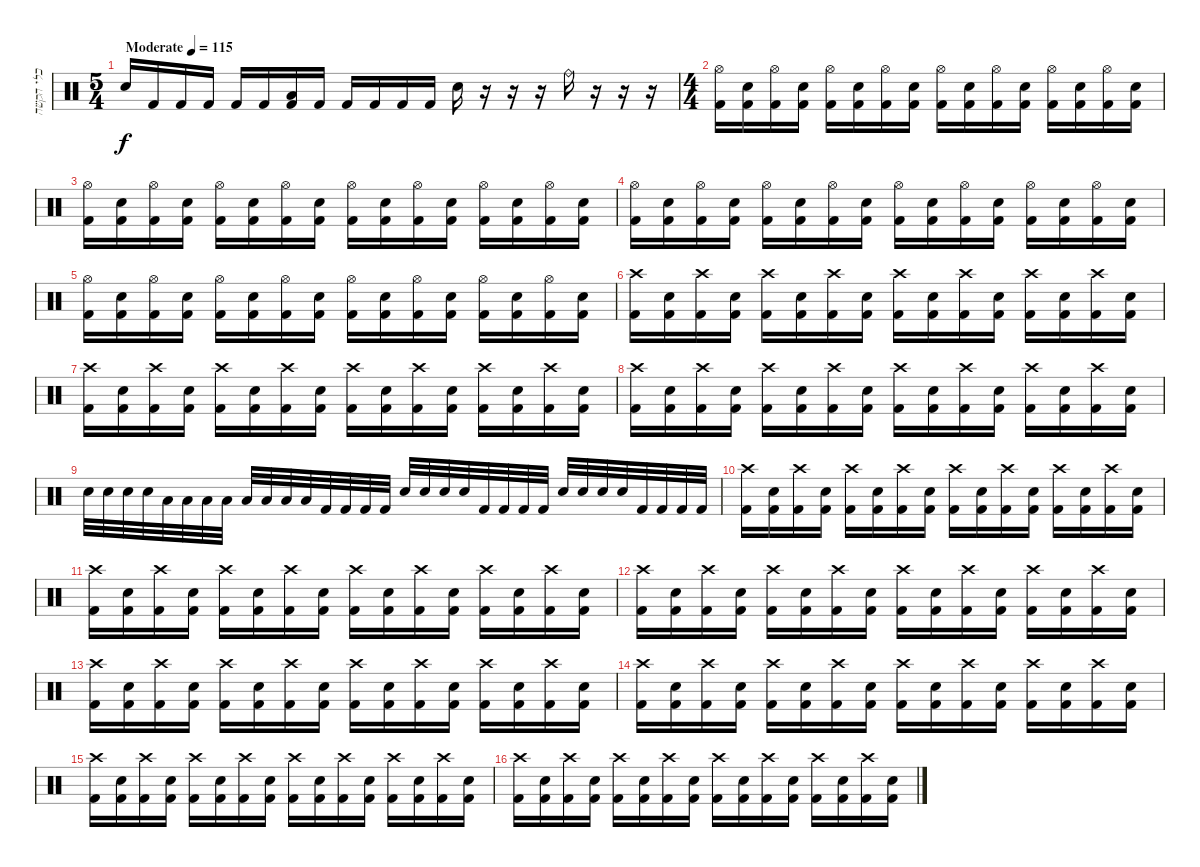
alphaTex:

\track ("כלי הקשה" "כלי הקשה") {instrument percussion}
\staff {score}
\articulation defaults
\ts (5 4)
\tempo (115 "Moderate")
\clef neutral
\ks c "Snare (hit) 2".16{dy f} "Kick (hit) 2".16 "Kick (hit) 2".16 "Kick (hit) 2".16 "Kick (hit) 2".16 "Kick (hit) 2".16
("Low Tom (hit)" "Kick (hit) 2").16 "Kick (hit) 2".16 "Kick (hit) 2".16 "Kick (hit) 2".16 "Kick (hit) 2".16 "Kick (hit) 2".16 "Snare (hit) 2".16 r.16 r.16 r.16 "Ride (bell)".16 r.16 r.16 r.16 |
\ts (4 4)
("Hi-Hat (open)" "Kick (hit) 2").16 ("Snare (hit) 2" "Kick (hit) 2").16 ("Hi-Hat (open)" "Kick (hit) 2").16 ("Snare (hit) 2" "Kick (hit) 2").16 ("Hi-Hat (open)" "Kick (hit) 2").16 ("Snare (hit) 2" "Kick (hit) 2").16 ("Hi-Hat (open)" "Kick (hit) 2").16 ("Snare (hit) 2" "Kick (hit) 2").16 ("Hi-Hat (open)" "Kick (hit) 2").16 ("Snare (hit) 2" "Kick (hit) 2").16 ("Hi-Hat (open)" "Kick (hit) 2").16 ("Snare (hit) 2" "Kick (hit) 2").16 ("Hi-Hat (open)" "Kick (hit) 2").16 ("Snare (hit) 2" "Kick (hit) 2").16 ("Hi-Hat (open)" "Kick (hit) 2").16 ("Snare (hit) 2" "Kick (hit) 2").16 |
("Hi-Hat (open)" "Kick (hit) 2").16 ("Snare (hit) 2" "Kick (hit) 2").16 ("Hi-Hat (open)" "Kick (hit) 2").16 ("Snare (hit) 2" "Kick (hit) 2").16 ("Hi-Hat (open)" "Kick (hit) 2").16 ("Snare (hit) 2" "Kick (hit) 2").16 ("Hi-Hat (open)" "Kick (hit) 2").16 ("Snare (hit) 2" "Kick (hit) 2").16 ("Hi-Hat (open)" "Kick (hit) 2").16 ("Snare (hit) 2" "Kick (hit) 2").16 ("Hi-Hat (open)" "Kick (hit) 2").16 ("Snare (hit) 2" "Kick (hit) 2").16 ("Hi-Hat (open)" "Kick (hit) 2").16 ("Snare (hit) 2" "Kick (hit) 2").16 ("Hi-Hat (open)" "Kick (hit) 2").16 ("Snare (hit) 2" "Kick (hit) 2").16 |
("Hi-Hat (open)" "Kick (hit) 2").16 ("Snare (hit) 2" "Kick (hit) 2").16 ("Hi-Hat (open)" "Kick (hit) 2").16 ("Snare (hit) 2" "Kick (hit) 2").16 ("Hi-Hat (open)" "Kick (hit) 2").16 ("Snare (hit) 2" "Kick (hit) 2").16 ("Hi-Hat (open)" "Kick (hit) 2").16 ("Snare (hit) 2" "Kick (hit) 2").16 ("Hi-Hat (open)" "Kick (hit) 2").16 ("Snare (hit) 2" "Kick (hit) 2").16 ("Hi-Hat (open)" "Kick (hit) 2").16 ("Snare (hit) 2" "Kick (hit) 2").16 ("Hi-Hat (open)" "Kick (hit) 2").16 ("Snare (hit) 2" "Kick (hit) 2").16 ("Hi-Hat (open)" "Kick (hit) 2").16 ("Snare (hit) 2" "Kick (hit) 2").16 |
("Hi-Hat (open)" "Kick (hit) 2").16 ("Snare (hit) 2" "Kick (hit) 2").16 ("Hi-Hat (open)" "Kick (hit) 2").16 ("Snare (hit) 2" "Kick (hit) 2").16 ("Hi-Hat (open)" "Kick (hit) 2").16 ("Snare (hit) 2" "Kick (hit) 2").16 ("Hi-Hat (open)" "Kick (hit) 2").16 ("Snare (hit) 2" "Kick (hit) 2").16 ("Hi-Hat (open)" "Kick (hit) 2").16 ("Snare (hit) 2" "Kick (hit) 2").16 ("Hi-Hat (open)" "Kick (hit) 2").16 ("Snare (hit) 2" "Kick (hit) 2").16 ("Hi-Hat (open)" "Kick (hit) 2").16 ("Snare (hit) 2" "Kick (hit) 2").16 ("Hi-Hat (open)" "Kick (hit) 2").16 ("Snare (hit) 2" "Kick (hit) 2").16 |
("Crash high (hit)" "Kick (hit) 2").16 ("Snare (hit) 2" "Kick (hit) 2").16 ("Crash high (hit)" "Kick (hit) 2").16 ("Snare (hit) 2" "Kick (hit) 2").16 ("Crash high (hit)" "Kick (hit) 2").16 ("Snare (hit) 2" "Kick (hit) 2").16 ("Crash high (hit)" "Kick (hit) 2").16 ("Snare (hit) 2" "Kick (hit) 2").16 ("Crash high (hit)" "Kick (hit) 2").16 ("Snare (hit) 2" "Kick (hit) 2").16 ("Crash high (hit)" "Kick (hit) 2").16 ("Snare (hit) 2" "Kick (hit) 2").16 ("Crash high (hit)" "Kick (hit) 2").16 ("Snare (hit) 2" "Kick (hit) 2").16 ("Crash high (hit)" "Kick (hit) 2").16 ("Snare (hit) 2" "Kick (hit) 2").16 |
("Crash high (hit)" "Kick (hit) 2").16 ("Snare (hit) 2" "Kick (hit) 2").16 ("Crash high (hit)" "Kick (hit) 2").16 ("Snare (hit) 2" "Kick (hit) 2").16 ("Crash high (hit)" "Kick (hit) 2").16 ("Snare (hit) 2" "Kick (hit) 2").16 ("Crash high (hit)" "Kick (hit) 2").16 ("Snare (hit) 2" "Kick (hit) 2").16 ("Crash high (hit)" "Kick (hit) 2").16 ("Snare (hit) 2" "Kick (hit) 2").16 ("Crash high (hit)" "Kick (hit) 2").16 ("Snare (hit) 2" "Kick (hit) 2").16 ("Crash high (hit)" "Kick (hit) 2").16 ("Snare (hit) 2" "Kick (hit) 2").16 ("Crash high (hit)" "Kick (hit) 2").16 ("Snare (hit) 2" "Kick (hit) 2").16 |
("Crash high (hit)" "Kick (hit) 2").16 ("Snare (hit) 2" "Kick (hit) 2").16 ("Crash high (hit)" "Kick (hit) 2").16 ("Snare (hit) 2" "Kick (hit) 2").16 ("Crash high (hit)" "Kick (hit) 2").16 ("Snare (hit) 2" "Kick (hit) 2").16 ("Crash high (hit)" "Kick (hit) 2").16 ("Snare (hit) 2" "Kick (hit) 2").16 ("Crash high (hit)" "Kick (hit) 2").16 ("Snare (hit) 2" "Kick (hit) 2").16 ("Crash high (hit)" "Kick (hit) 2").16 ("Snare (hit) 2" "Kick (hit) 2").16 ("Crash high (hit)" "Kick (hit) 2").16 ("Snare (hit) 2" "Kick (hit) 2").16 ("Crash high (hit)" "Kick (hit) 2").16 ("Snare (hit) 2" "Kick (hit) 2").16 |
"Snare (hit) 2".32 "Snare (hit) 2".32 "Snare (hit) 2".32 "Snare (hit) 2".32 "Low Tom (hit)".32 "Low Tom (hit)".32 "Low Tom (hit)".32 "Low Tom (hit)".32 "Low Floor Tom (hit)".32 "Low Floor Tom (hit)".32 "Low Floor Tom (hit)".32 "Low Floor Tom (hit)".32 "Kick (hit) 2".32 "Kick (hit) 2".32 "Kick (hit) 2".32 "Kick (hit) 2".32 "Snare (hit) 2".32 "Snare (hit) 2".32 "Snare (hit) 2".32 "Snare (hit) 2".32 "Kick (hit) 2".32 "Kick (hit) 2".32 "Kick (hit) 2".32 "Kick (hit) 2".32 "Snare (hit) 2".32 "Snare (hit) 2".32 "Snare (hit) 2".32 "Snare (hit) 2".32 "Kick (hit) 2".32 "Kick (hit) 2".32 "Kick (hit) 2".32 "Kick (hit) 2".32 |
("Crash high (hit)" "Kick (hit) 2").16 ("Snare (hit) 2" "Kick (hit) 2").16 ("Crash high (hit)" "Kick (hit) 2").16 ("Snare (hit) 2" "Kick (hit) 2").16 ("Crash high (hit)" "Kick (hit) 2").16 ("Snare (hit) 2" "Kick (hit) 2").16 ("Crash high (hit)" "Kick (hit) 2").16 ("Snare (hit) 2" "Kick (hit) 2").16 ("Crash high (hit)" "Kick (hit) 2").16 ("Snare (hit) 2" "Kick (hit) 2").16 ("Crash high (hit)" "Kick (hit) 2").16 ("Snare (hit) 2" "Kick (hit) 2").16 ("Crash high (hit)" "Kick (hit) 2").16 ("Snare (hit) 2" "Kick (hit) 2").16 ("Crash high (hit)" "Kick (hit) 2").16 ("Snare (hit) 2" "Kick (hit) 2").16 |
("Crash high (hit)" "Kick (hit) 2").16 ("Snare (hit) 2" "Kick (hit) 2").16 ("Crash high (hit)" "Kick (hit) 2").16 ("Snare (hit) 2" "Kick (hit) 2").16 ("Crash high (hit)" "Kick (hit) 2").16 ("Snare (hit) 2" "Kick (hit) 2").16 ("Crash high (hit)" "Kick (hit) 2").16 ("Snare (hit) 2" "Kick (hit) 2").16 ("Crash high (hit)" "Kick (hit) 2").16 ("Snare (hit) 2" "Kick (hit) 2").16 ("Crash high (hit)" "Kick (hit) 2").16 ("Snare (hit) 2" "Kick (hit) 2").16 ("Crash high (hit)" "Kick (hit) 2").16 ("Snare (hit) 2" "Kick (hit) 2").16 ("Crash high (hit)" "Kick (hit) 2").16 ("Snare (hit) 2" "Kick (hit) 2").16 |
("Crash high (hit)" "Kick (hit) 2").16 ("Snare (hit) 2" "Kick (hit) 2").16 ("Crash high (hit)" "Kick (hit) 2").16 ("Snare (hit) 2" "Kick (hit) 2").16 ("Crash high (hit)" "Kick (hit) 2").16 ("Snare (hit) 2" "Kick (hit) 2").16 ("Crash high (hit)" "Kick (hit) 2").16 ("Snare (hit) 2" "Kick (hit) 2").16 ("Crash high (hit)" "Kick (hit) 2").16 ("Snare (hit) 2" "Kick (hit) 2").16 ("Crash high (hit)" "Kick (hit) 2").16 ("Snare (hit) 2" "Kick (hit) 2").16 ("Crash high (hit)" "Kick (hit) 2").16 ("Snare (hit) 2" "Kick (hit) 2").16 ("Crash high (hit)" "Kick (hit) 2").16 ("Snare (hit) 2" "Kick (hit) 2").16 |
("Crash high (hit)" "Kick (hit) 2").16 ("Snare (hit) 2" "Kick (hit) 2").16 ("Crash high (hit)" "Kick (hit) 2").16 ("Snare (hit) 2" "Kick (hit) 2").16 ("Crash high (hit)" "Kick (hit) 2").16 ("Snare (hit) 2" "Kick (hit) 2").16 ("Crash high (hit)" "Kick (hit) 2").16 ("Snare (hit) 2" "Kick (hit) 2").16 ("Crash high (hit)" "Kick (hit) 2").16 ("Snare (hit) 2" "Kick (hit) 2").16 ("Crash high (hit)" "Kick (hit) 2").16 ("Snare (hit) 2" "Kick (hit) 2").16 ("Crash high (hit)" "Kick (hit) 2").16 ("Snare (hit) 2" "Kick (hit) 2").16 ("Crash high (hit)" "Kick (hit) 2").16 ("Snare (hit) 2" "Kick (hit) 2").16 |
("Crash high (hit)" "Kick (hit) 2").16 ("Snare (hit) 2" "Kick (hit) 2").16 ("Crash high (hit)" "Kick (hit) 2").16 ("Snare (hit) 2" "Kick (hit) 2").16 ("Crash high (hit)" "Kick (hit) 2").16 ("Snare (hit) 2" "Kick (hit) 2").16 ("Crash high (hit)" "Kick (hit) 2").16 ("Snare (hit) 2" "Kick (hit) 2").16 ("Crash high (hit)" "Kick (hit) 2").16 ("Snare (hit) 2" "Kick (hit) 2").16 ("Crash high (hit)" "Kick (hit) 2").16 ("Snare (hit) 2" "Kick (hit) 2").16 ("Crash high (hit)" "Kick (hit) 2").16 ("Snare (hit) 2" "Kick (hit) 2").16 ("Crash high (hit)" "Kick (hit) 2").16 ("Snare (hit) 2" "Kick (hit) 2").16 |
("Crash high (hit)" "Kick (hit) 2").16 ("Snare (hit) 2" "Kick (hit) 2").16 ("Crash high (hit)" "Kick (hit) 2").16 ("Snare (hit) 2" "Kick (hit) 2").16 ("Crash high (hit)" "Kick (hit) 2").16 ("Snare (hit) 2" "Kick (hit) 2").16 ("Crash high (hit)" "Kick (hit) 2").16 ("Snare (hit) 2" "Kick (hit) 2").16 ("Crash high (hit)" "Kick (hit) 2").16 ("Snare (hit) 2" "Kick (hit) 2").16 ("Crash high (hit)" "Kick (hit) 2").16 ("Snare (hit) 2" "Kick (hit) 2").16 ("Crash high (hit)" "Kick (hit) 2").16 ("Snare (hit) 2" "Kick (hit) 2").16 ("Crash high (hit)" "Kick (hit) 2").16 ("Snare (hit) 2" "Kick (hit) 2").16 |
("Crash high (hit)" "Kick (hit) 2").16 ("Snare (hit) 2" "Kick (hit) 2").16 ("Crash high (hit)" "Kick (hit) 2").16 ("Snare (hit) 2" "Kick (hit) 2").16 ("Crash high (hit)" "Kick (hit) 2").16 ("Snare (hit) 2" "Kick (hit) 2").16 ("Crash high (hit)" "Kick (hit) 2").16 ("Snare (hit) 2" "Kick (hit) 2").16 ("Crash high (hit)" "Kick (hit) 2").16 ("Snare (hit) 2" "Kick (hit) 2").16 ("Crash high (hit)" "Kick (hit) 2").16 ("Snare (hit) 2" "Kick (hit) 2").16 ("Crash high (hit)" "Kick (hit) 2").16 ("Snare (hit) 2" "Kick (hit) 2").16 ("Crash high (hit)" "Kick (hit) 2").16 ("Snare (hit) 2" "Kick (hit) 2").16
